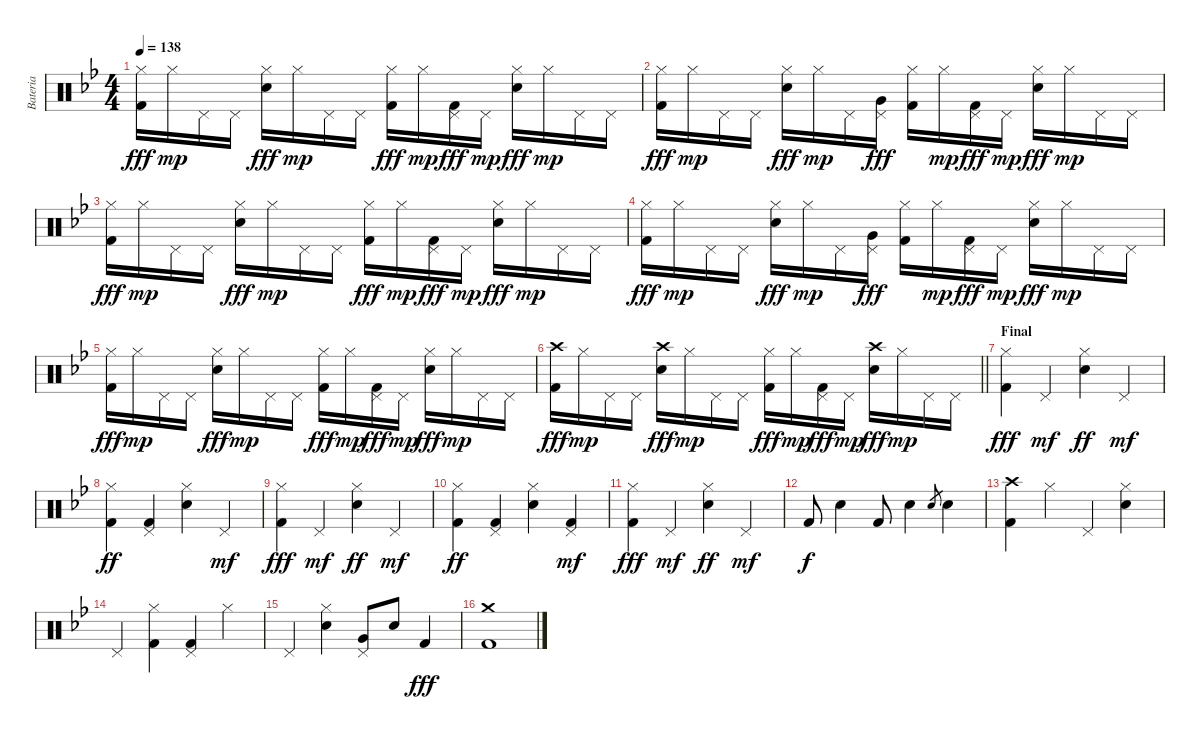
\track ("Bateria" "Bateria") {instrument percussion}
\staff {score}
\articulation defaults
\ts (4 4)
\tempo 138
\clef neutral
\ks bb
("Hi-Hat (closed)" "Kick (hit) 2").16{dy fff} "Hi-Hat (closed)".16{dy mp} "Pedal Hi-Hat (hit)".16 "Pedal Hi-Hat (hit)".16 ("Hi-Hat (closed)" "Snare (hit) 2").16{dy fff} "Hi-Hat (closed)".16{dy mp} "Pedal Hi-Hat (hit)".16 "Pedal Hi-Hat (hit)".16 ("Hi-Hat (closed)" "Kick (hit) 2").16{dy fff} "Hi-Hat (closed)".16{dy mp} ("Pedal Hi-Hat (hit)" "Kick (hit) 2").16{dy fff} "Pedal Hi-Hat (hit)".16{dy mp} ("Hi-Hat (closed)" "Snare (hit) 2").16{dy fff} "Hi-Hat (closed)".16{dy mp} "Pedal Hi-Hat (hit)".16 "Pedal Hi-Hat (hit)".16 |
("Hi-Hat (closed)" "Kick (hit) 2").16{dy fff} "Hi-Hat (closed)".16{dy mp} "Pedal Hi-Hat (hit)".16 "Pedal Hi-Hat (hit)".16 ("Hi-Hat (closed)" "Snare (hit) 2").16{dy fff} "Hi-Hat (closed)".16{dy mp} "Pedal Hi-Hat (hit)".16 ("Pedal Hi-Hat (hit)" "Very Low Tom (hit)").16{dy fff} ("Hi-Hat (closed)" "Kick (hit) 2").16 "Hi-Hat (closed)".16{dy mp} ("Pedal Hi-Hat (hit)" "Kick (hit) 2").16{dy fff} "Pedal Hi-Hat (hit)".16{dy mp} ("Hi-Hat (closed)" "Snare (hit) 2").16{dy fff} "Hi-Hat (closed)".16{dy mp} "Pedal Hi-Hat (hit)".16 "Pedal Hi-Hat (hit)".16 |
("Hi-Hat (closed)" "Kick (hit) 2").16{dy fff} "Hi-Hat (closed)".16{dy mp} "Pedal Hi-Hat (hit)".16 "Pedal Hi-Hat (hit)".16 ("Hi-Hat (closed)" "Snare (hit) 2").16{dy fff} "Hi-Hat (closed)".16{dy mp} "Pedal Hi-Hat (hit)".16 "Pedal Hi-Hat (hit)".16 ("Hi-Hat (closed)" "Kick (hit) 2").16{dy fff} "Hi-Hat (closed)".16{dy mp} ("Pedal Hi-Hat (hit)" "Kick (hit) 2").16{dy fff} "Pedal Hi-Hat (hit)".16{dy mp} ("Hi-Hat (closed)" "Snare (hit) 2").16{dy fff} "Hi-Hat (closed)".16{dy mp} "Pedal Hi-Hat (hit)".16 "Pedal Hi-Hat (hit)".16 |
("Hi-Hat (closed)" "Kick (hit) 2").16{dy fff} "Hi-Hat (closed)".16{dy mp} "Pedal Hi-Hat (hit)".16 "Pedal Hi-Hat (hit)".16 ("Hi-Hat (closed)" "Snare (hit) 2").16{dy fff} "Hi-Hat (closed)".16{dy mp} "Pedal Hi-Hat (hit)".16 ("Pedal Hi-Hat (hit)" "Very Low Tom (hit)").16{dy fff} ("Hi-Hat (closed)" "Kick (hit) 2").16 "Hi-Hat (closed)".16{dy mp} ("Pedal Hi-Hat (hit)" "Kick (hit) 2").16{dy fff} "Pedal Hi-Hat (hit)".16{dy mp} ("Hi-Hat (closed)" "Snare (hit) 2").16{dy fff} "Hi-Hat (closed)".16{dy mp} "Pedal Hi-Hat (hit)".16 "Pedal Hi-Hat (hit)".16 |
("Hi-Hat (closed)" "Kick (hit) 2").16{dy fff} "Hi-Hat (closed)".16{dy mp} "Pedal Hi-Hat (hit)".16 "Pedal Hi-Hat (hit)".16 ("Hi-Hat (closed)" "Snare (hit) 2").16{dy fff} "Hi-Hat (closed)".16{dy mp} "Pedal Hi-Hat (hit)".16 "Pedal Hi-Hat (hit)".16 ("Hi-Hat (closed)" "Kick (hit) 2").16{dy fff} "Hi-Hat (closed)".16{dy mp} ("Pedal Hi-Hat (hit)" "Kick (hit) 2").16{dy fff} "Pedal Hi-Hat (hit)".16{dy mp} ("Hi-Hat (closed)" "Snare (hit) 2").16{dy fff} "Hi-Hat (closed)".16{dy mp} "Pedal Hi-Hat (hit)".16 "Pedal Hi-Hat (hit)".16 |
\barLineRight lightlight
("Crash high (hit)" "Kick (hit) 2").16{dy fff} "Hi-Hat (closed)".16{dy mp} "Pedal Hi-Hat (hit)".16 "Pedal Hi-Hat (hit)".16 ("Crash high (hit)" "Snare (hit) 2").16{dy fff} "Hi-Hat (closed)".16{dy mp} "Pedal Hi-Hat (hit)".16 "Pedal Hi-Hat (hit)".16 ("Hi-Hat (closed)" "Kick (hit) 2").16{dy fff} "Hi-Hat (closed)".16{dy mp} ("Pedal Hi-Hat (hit)" "Kick (hit) 2").16{dy fff} "Pedal Hi-Hat (hit)".16{dy mp} ("Crash high (hit)" "Snare (hit) 2").16{dy fff} "Hi-Hat (closed)".16{dy mp} "Pedal Hi-Hat (hit)".16 "Pedal Hi-Hat (hit)".16 |
\section ("" "Final")
("Hi-Hat (closed)" "Kick (hit) 2").4{dy fff} "Pedal Hi-Hat (hit)".4{dy mf} ("Hi-Hat (closed)" "Electric Snare (hit)").4{dy ff} "Pedal Hi-Hat (hit)".4{dy mf} |
("Hi-Hat (closed)" "Kick (hit) 2").4{dy ff} ("Pedal Hi-Hat (hit)" "Kick (hit) 2").4 ("Hi-Hat (closed)" "Electric Snare (hit)").4 "Pedal Hi-Hat (hit)".4{dy mf} |
("Hi-Hat (closed)" "Kick (hit) 2").4{dy fff} "Pedal Hi-Hat (hit)".4{dy mf} ("Hi-Hat (closed)" "Electric Snare (hit)").4{dy ff} "Pedal Hi-Hat (hit)".4{dy mf} |
("Hi-Hat (closed)" "Kick (hit) 2").4{dy ff} ("Pedal Hi-Hat (hit)" "Kick (hit) 2").4 ("Hi-Hat (closed)" "Electric Snare (hit)").4 ("Pedal Hi-Hat (hit)" "Kick (hit) 2").4{dy mf} |
("Hi-Hat (closed)" "Kick (hit) 2").4{dy fff} "Pedal Hi-Hat (hit)".4{dy mf} ("Hi-Hat (closed)" "Electric Snare (hit)").4{dy ff} "Pedal Hi-Hat (hit)".4{dy mf} |
"Kick (hit) 2".8{dy f} "Electric Snare (hit)".4 "Kick (hit) 2".8 "Electric Snare (hit)".4 "Electric Snare (hit)".8{gr} "Electric Snare (hit)".4 |
("Crash high (hit)" "Kick (hit) 2").4 "Hi-Hat (closed)".4 "Pedal Hi-Hat (hit)".4 ("Hi-Hat (closed)" "Electric Snare (hit)").4 |
"Pedal Hi-Hat (hit)".4 ("Hi-Hat (closed)" "Kick (hit) 2").4 ("Pedal Hi-Hat (hit)" "Kick (hit) 2").4 "Hi-Hat (closed)".4 |
"Pedal Hi-Hat (hit)".4 ("Hi-Hat (closed)" "Electric Snare (hit)").4 ("Pedal Hi-Hat (hit)" "Very Low Tom (hit)").8 "Electric Snare (hit)".8 "Kick (hit) 2".4{dy fff} |
("Crash medium (hit)" "Kick (hit) 2").1
